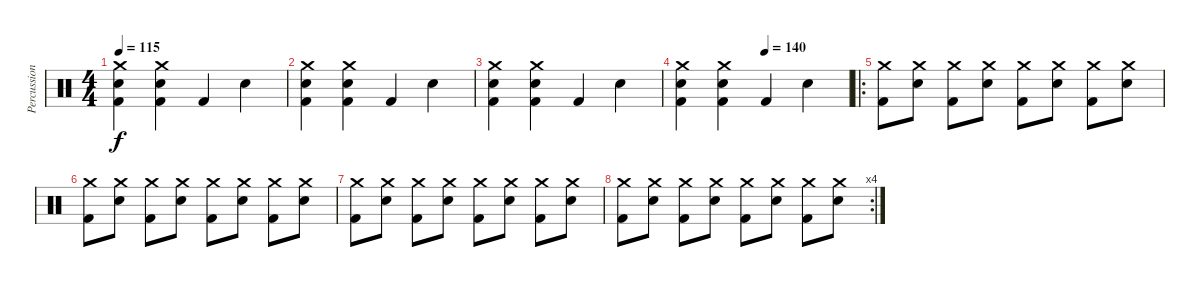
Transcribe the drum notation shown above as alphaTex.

\track ("Percussions" "Percussion") {instrument percussion}
\staff {score}
\articulation defaults
\ts (4 4)
\tempo 115
\clef neutral
\ks c
("Crash medium (hit)" "Electric Snare (hit)" "Kick (hit) 2").4{dy f} ("Crash medium (hit)" "Electric Snare (hit)" "Kick (hit) 2").4 "Kick (hit) 2".4 "Electric Snare (hit)".4 |
("Crash medium (hit)" "Electric Snare (hit)" "Kick (hit) 2").4 ("Crash medium (hit)" "Electric Snare (hit)" "Kick (hit) 2").4 "Kick (hit) 2".4 "Electric Snare (hit)".4 |
("Crash medium (hit)" "Electric Snare (hit)" "Kick (hit) 2").4 ("Crash medium (hit)" "Electric Snare (hit)" "Kick (hit) 2").4 "Kick (hit) 2".4 "Electric Snare (hit)".4 |
\tempo (140 0.5)
("Crash medium (hit)" "Electric Snare (hit)" "Kick (hit) 2").4 ("Crash medium (hit)" "Electric Snare (hit)" "Kick (hit) 2").4 "Kick (hit) 2".4 "Electric Snare (hit)".4 |
\ro
("Crash medium (hit)" "Kick (hit) 2").8 ("Crash medium (hit)" "Electric Snare (hit)").8 ("Crash medium (hit)" "Kick (hit) 2").8 ("Crash medium (hit)" "Electric Snare (hit)").8 ("Crash medium (hit)" "Kick (hit) 2").8 ("Crash medium (hit)" "Electric Snare (hit)").8 ("Crash medium (hit)" "Kick (hit) 2").8 ("Crash medium (hit)" "Electric Snare (hit)").8 |
("Crash medium (hit)" "Kick (hit) 2").8 ("Crash medium (hit)" "Electric Snare (hit)").8 ("Crash medium (hit)" "Kick (hit) 2").8 ("Crash medium (hit)" "Electric Snare (hit)").8 ("Crash medium (hit)" "Kick (hit) 2").8 ("Crash medium (hit)" "Electric Snare (hit)").8 ("Crash medium (hit)" "Kick (hit) 2").8 ("Crash medium (hit)" "Electric Snare (hit)").8 |
("Crash medium (hit)" "Kick (hit) 2").8 ("Crash medium (hit)" "Electric Snare (hit)").8 ("Crash medium (hit)" "Kick (hit) 2").8 ("Crash medium (hit)" "Electric Snare (hit)").8 ("Crash medium (hit)" "Kick (hit) 2").8 ("Crash medium (hit)" "Electric Snare (hit)").8 ("Crash medium (hit)" "Kick (hit) 2").8 ("Crash medium (hit)" "Electric Snare (hit)").8 |
\rc 4
("Crash medium (hit)" "Kick (hit) 2").8 ("Crash medium (hit)" "Electric Snare (hit)").8 ("Crash medium (hit)" "Kick (hit) 2").8 ("Crash medium (hit)" "Electric Snare (hit)").8 ("Crash medium (hit)" "Kick (hit) 2").8 ("Crash medium (hit)" "Electric Snare (hit)").8 ("Crash medium (hit)" "Kick (hit) 2").8 ("Crash medium (hit)" "Electric Snare (hit)").8
